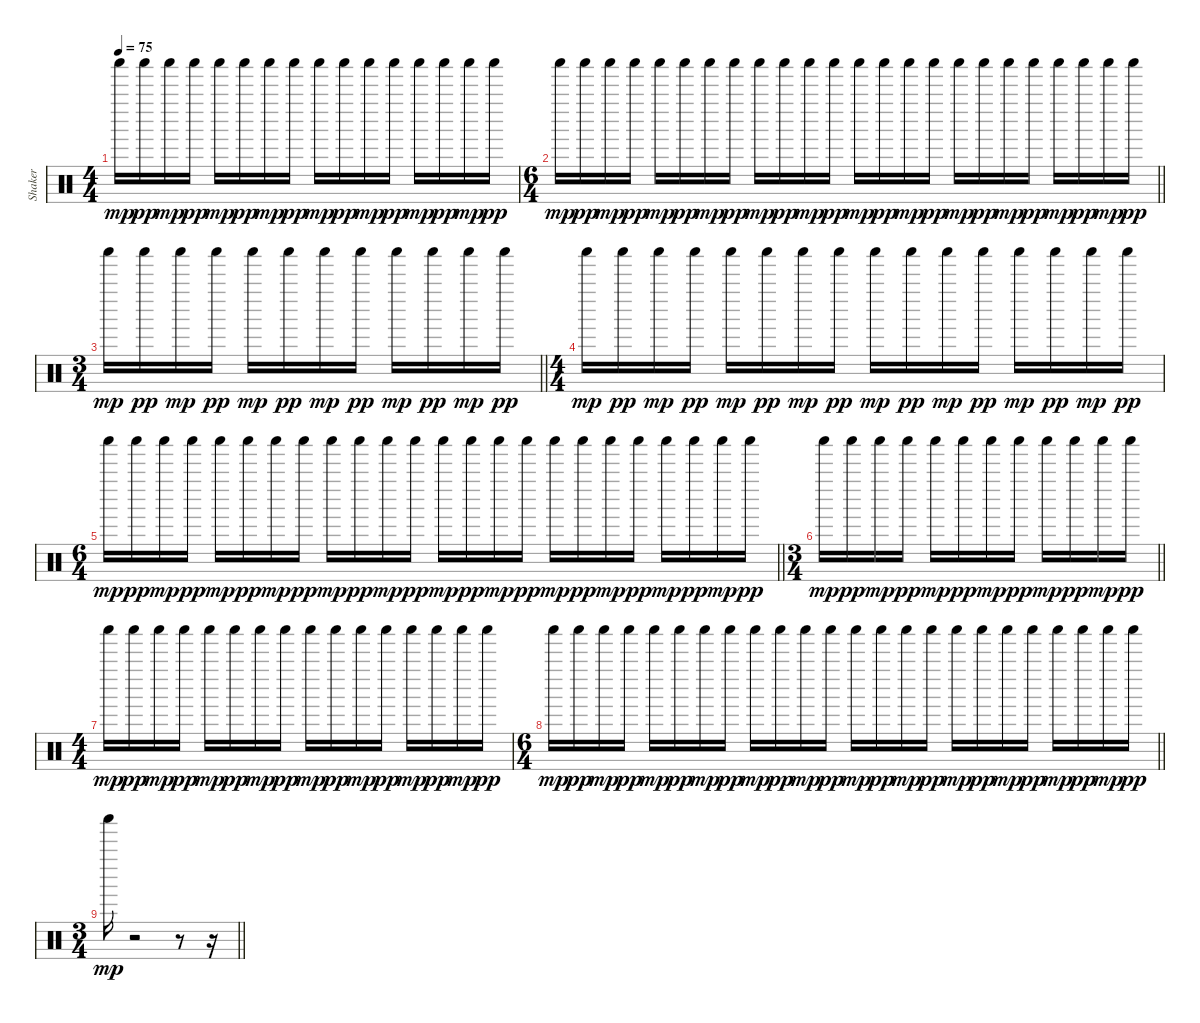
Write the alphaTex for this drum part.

\track ("Shaker" "Shaker") {instrument percussion}
\staff {score}
\articulation defaults
\ts (4 4)
\tempo 75
\clef neutral
\ks c "Shaker (hit)".16{dy mp} "Shaker (hit)".16{dy pp} "Shaker (hit)".16{dy mp} "Shaker (hit)".16{dy pp} "Shaker (hit)".16{dy mp} "Shaker (hit)".16{dy pp} "Shaker (hit)".16{dy mp} "Shaker (hit)".16{dy pp} "Shaker (hit)".16{dy mp} "Shaker (hit)".16{dy pp} "Shaker (hit)".16{dy mp} "Shaker (hit)".16{dy pp} "Shaker (hit)".16{dy mp} "Shaker (hit)".16{dy pp} "Shaker (hit)".16{dy mp} "Shaker (hit)".16{dy pp}
|
\ts (6 4)
\barLineRight lightlight "Shaker (hit)".16{dy mp} "Shaker (hit)".16{dy pp} "Shaker (hit)".16{dy mp} "Shaker (hit)".16{dy pp} "Shaker (hit)".16{dy mp} "Shaker (hit)".16{dy pp} "Shaker (hit)".16{dy mp} "Shaker (hit)".16{dy pp} "Shaker (hit)".16{dy mp} "Shaker (hit)".16{dy pp} "Shaker (hit)".16{dy mp} "Shaker (hit)".16{dy pp} "Shaker (hit)".16{dy mp} "Shaker (hit)".16{dy pp} "Shaker (hit)".16{dy mp} "Shaker (hit)".16{dy pp} "Shaker (hit)".16{dy mp} "Shaker (hit)".16{dy pp} "Shaker (hit)".16{dy mp} "Shaker (hit)".16{dy pp} "Shaker (hit)".16{dy mp} "Shaker (hit)".16{dy pp} "Shaker (hit)".16{dy mp} "Shaker (hit)".16{dy pp}
|
\ts (3 4)
\barLineRight lightlight "Shaker (hit)".16{dy mp} "Shaker (hit)".16{dy pp} "Shaker (hit)".16{dy mp} "Shaker (hit)".16{dy pp} "Shaker (hit)".16{dy mp} "Shaker (hit)".16{dy pp} "Shaker (hit)".16{dy mp} "Shaker (hit)".16{dy pp} "Shaker (hit)".16{dy mp} "Shaker (hit)".16{dy pp} "Shaker (hit)".16{dy mp} "Shaker (hit)".16{dy pp}
|
\ts (4 4)
"Shaker (hit)".16{dy mp} "Shaker (hit)".16{dy pp} "Shaker (hit)".16{dy mp} "Shaker (hit)".16{dy pp} "Shaker (hit)".16{dy mp} "Shaker (hit)".16{dy pp} "Shaker (hit)".16{dy mp} "Shaker (hit)".16{dy pp} "Shaker (hit)".16{dy mp} "Shaker (hit)".16{dy pp} "Shaker (hit)".16{dy mp} "Shaker (hit)".16{dy pp} "Shaker (hit)".16{dy mp} "Shaker (hit)".16{dy pp} "Shaker (hit)".16{dy mp} "Shaker (hit)".16{dy pp} |
\ts (6 4)
\barLineRight lightlight "Shaker (hit)".16{dy mp} "Shaker (hit)".16{dy pp} "Shaker (hit)".16{dy mp} "Shaker (hit)".16{dy pp} "Shaker (hit)".16{dy mp} "Shaker (hit)".16{dy pp} "Shaker (hit)".16{dy mp} "Shaker (hit)".16{dy pp} "Shaker (hit)".16{dy mp} "Shaker (hit)".16{dy pp} "Shaker (hit)".16{dy mp} "Shaker (hit)".16{dy pp} "Shaker (hit)".16{dy mp} "Shaker (hit)".16{dy pp} "Shaker (hit)".16{dy mp} "Shaker (hit)".16{dy pp} "Shaker (hit)".16{dy mp} "Shaker (hit)".16{dy pp} "Shaker (hit)".16{dy mp} "Shaker (hit)".16{dy pp} "Shaker (hit)".16{dy mp} "Shaker (hit)".16{dy pp} "Shaker (hit)".16{dy mp} "Shaker (hit)".16{dy pp}
|
\ts (3 4)
\barLineRight lightlight "Shaker (hit)".16{dy mp} "Shaker (hit)".16{dy pp} "Shaker (hit)".16{dy mp} "Shaker (hit)".16{dy pp} "Shaker (hit)".16{dy mp} "Shaker (hit)".16{dy pp} "Shaker (hit)".16{dy mp} "Shaker (hit)".16{dy pp} "Shaker (hit)".16{dy mp} "Shaker (hit)".16{dy pp} "Shaker (hit)".16{dy mp} "Shaker (hit)".16{dy pp}
|
\ts (4 4)
"Shaker (hit)".16{dy mp} "Shaker (hit)".16{dy pp} "Shaker (hit)".16{dy mp} "Shaker (hit)".16{dy pp} "Shaker (hit)".16{dy mp} "Shaker (hit)".16{dy pp} "Shaker (hit)".16{dy mp} "Shaker (hit)".16{dy pp} "Shaker (hit)".16{dy mp} "Shaker (hit)".16{dy pp} "Shaker (hit)".16{dy mp} "Shaker (hit)".16{dy pp} "Shaker (hit)".16{dy mp} "Shaker (hit)".16{dy pp} "Shaker (hit)".16{dy mp} "Shaker (hit)".16{dy pp} |
\ts (6 4)
\barLineRight lightlight "Shaker (hit)".16{dy mp} "Shaker (hit)".16{dy pp} "Shaker (hit)".16{dy mp} "Shaker (hit)".16{dy pp} "Shaker (hit)".16{dy mp} "Shaker (hit)".16{dy pp} "Shaker (hit)".16{dy mp} "Shaker (hit)".16{dy pp} "Shaker (hit)".16{dy mp} "Shaker (hit)".16{dy pp} "Shaker (hit)".16{dy mp} "Shaker (hit)".16{dy pp} "Shaker (hit)".16{dy mp} "Shaker (hit)".16{dy pp} "Shaker (hit)".16{dy mp} "Shaker (hit)".16{dy pp} "Shaker (hit)".16{dy mp} "Shaker (hit)".16{dy pp} "Shaker (hit)".16{dy mp} "Shaker (hit)".16{dy pp} "Shaker (hit)".16{dy mp} "Shaker (hit)".16{dy pp} "Shaker (hit)".16{dy mp} "Shaker (hit)".16{dy pp}
|
\ts (3 4)
\barLineRight lightlight "Shaker (hit)".16{dy mp}
r.2 r.8 r.16
